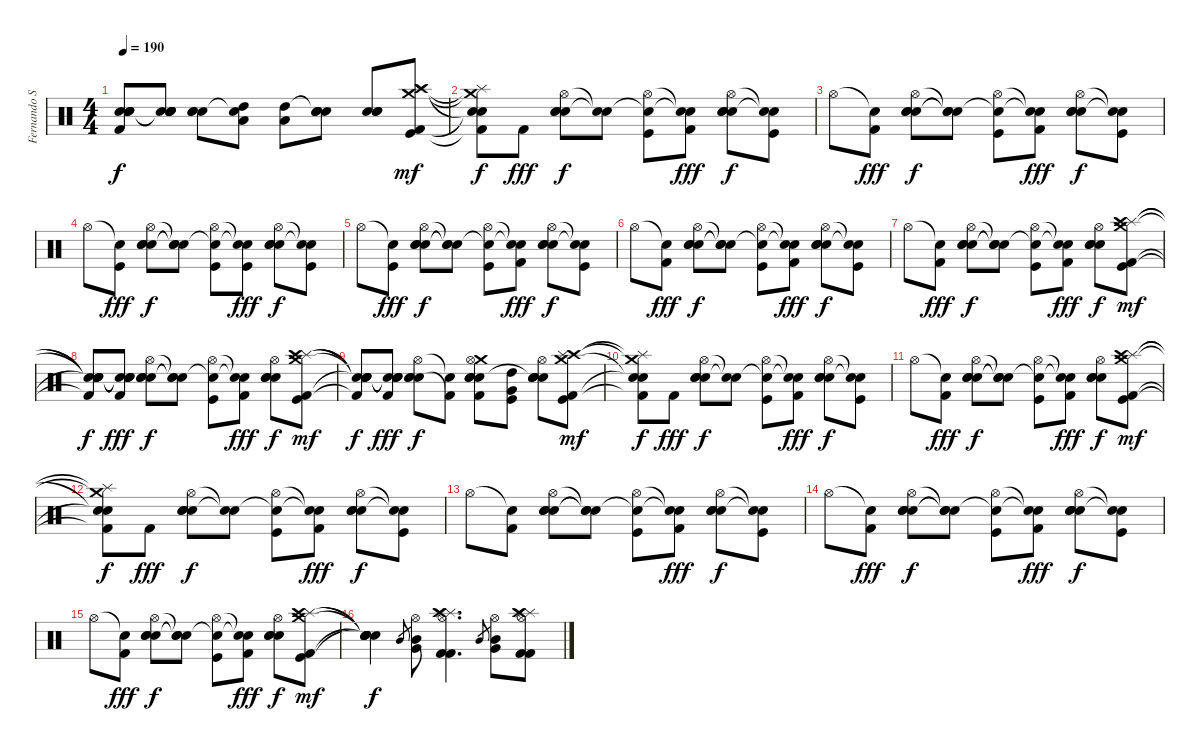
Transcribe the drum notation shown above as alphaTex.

\track ("Fernando Scarcella" "Fernando S") {instrument percussion}
\staff {score}
\articulation defaults
\ts (4 4)
\tempo 190
\clef neutral
\ks c
("Snare (hit)"{t} "Snare (hit)"{t} "Snare (hit)"{t} "Snare (hit)"{t} "Kick (hit) 2"{t}).8{dy f} ("Snare (hit)"{t} "Snare (hit)"{t} "Electric Snare (hit)" "Electric Snare (hit)" "Electric Snare (hit)").8 ("Electric Snare (hit)" "Electric Snare (hit)" "Electric Snare (hit)").8 ("High Tom (hit)" "Low Tom (hit)" "Snare (hit)"{t}).8 ("High Tom (hit)" "Low Tom (hit)").8 ("Snare (hit)"{t} "Electric Snare (hit)" "Electric Snare (hit)" "Electric Snare (hit)").8 ("Electric Snare (hit)" "Electric Snare (hit)" "Electric Snare (hit)").8 ("Crash medium (hit)" "Splash (hit)" "Crash high (hit)" "Kick (hit) 2" "Kick (hit)").8{dy mf} |
("Crash medium (hit)"{t} "Splash (hit)"{t} "Snare (hit)"{t} "Snare (hit)"{t} "Kick (hit) 2"{t}).8{dy f} "Kick (hit) 2".8{dy fff} ("Hi-Hat (open)" "Electric Snare (hit)" "Electric Snare (hit)" "Electric Snare (hit)").8{dy f} ("Snare (hit)"{t} "Snare (hit)"{t}).8 ("Hi-Hat (open)" "Snare (hit)"{t} "Kick (hit)").8 ("Snare (hit)"{t} "Snare (hit)"{t} "Kick (hit) 2").8{dy fff} ("Hi-Hat (open)" "Electric Snare (hit)" "Electric Snare (hit)" "Electric Snare (hit)").8{dy f} ("Snare (hit)"{t} "Snare (hit)"{t} "Kick (hit)").8 |
"Hi-Hat (open)".8 ("Snare (hit)"{t} "Kick (hit) 2").8{dy fff} ("Hi-Hat (open)" "Electric Snare (hit)" "Electric Snare (hit)" "Electric Snare (hit)").8{dy f} ("Snare (hit)"{t} "Snare (hit)"{t} "Snare (hit)"{t}).8 ("Hi-Hat (open)" "Snare (hit)"{t} "Kick (hit)").8 ("Snare (hit)"{t} "Snare (hit)"{t} "Kick (hit) 2").8{dy fff} ("Hi-Hat (open)" "Electric Snare (hit)" "Electric Snare (hit)" "Electric Snare (hit)").8{dy f} ("Snare (hit)"{t} "Snare (hit)"{t} "Kick (hit)").8 |
"Hi-Hat (open)".8 ("Snare (hit)"{t} "Kick (hit)").8{dy fff} ("Hi-Hat (open)" "Electric Snare (hit)" "Electric Snare (hit)" "Electric Snare (hit)").8{dy f} ("Snare (hit)"{t} "Snare (hit)"{t} "Snare (hit)"{t}).8 ("Hi-Hat (open)" "Snare (hit)"{t} "Kick (hit)").8 ("Snare (hit)"{t} "Snare (hit)"{t} "Kick (hit)").8{dy fff} ("Hi-Hat (open)" "Electric Snare (hit)" "Electric Snare (hit)" "Electric Snare (hit)").8{dy f} ("Snare (hit)"{t} "Snare (hit)"{t} "Kick (hit)").8 |
"Hi-Hat (open)".8 ("Snare (hit)"{t} "Kick (hit)").8{dy fff} ("Hi-Hat (open)" "Electric Snare (hit)" "Electric Snare (hit)" "Electric Snare (hit)").8{dy f} ("Snare (hit)"{t} "Snare (hit)"{t} "Snare (hit)"{t}).8 ("Hi-Hat (open)" "Snare (hit)"{t} "Kick (hit)").8 ("Snare (hit)"{t} "Snare (hit)"{t} "Kick (hit) 2").8{dy fff} ("Hi-Hat (open)" "Electric Snare (hit)" "Electric Snare (hit)" "Electric Snare (hit)").8{dy f} ("Snare (hit)"{t} "Snare (hit)"{t} "Kick (hit)").8 |
"Hi-Hat (open)".8 ("Snare (hit)"{t} "Kick (hit) 2").8{dy fff} ("Hi-Hat (open)" "Electric Snare (hit)" "Electric Snare (hit)" "Electric Snare (hit)").8{dy f} ("Snare (hit)"{t} "Snare (hit)"{t} "Snare (hit)"{t}).8 ("Hi-Hat (open)" "Snare (hit)"{t} "Kick (hit)").8 ("Snare (hit)"{t} "Snare (hit)"{t} "Kick (hit) 2").8{dy fff} ("Hi-Hat (open)" "Electric Snare (hit)" "Electric Snare (hit)" "Electric Snare (hit)").8{dy f} ("Snare (hit)"{t} "Snare (hit)"{t} "Kick (hit)").8 |
"Hi-Hat (open)".8 ("Snare (hit)"{t} "Kick (hit) 2").8{dy fff} ("Hi-Hat (open)" "Electric Snare (hit)" "Electric Snare (hit)" "Electric Snare (hit)").8{dy f} ("Snare (hit)"{t} "Snare (hit)"{t} "Snare (hit)"{t}).8 ("Hi-Hat (open)" "Snare (hit)"{t} "Kick (hit)").8 ("Snare (hit)"{t} "Snare (hit)"{t} "Kick (hit) 2").8{dy fff} ("Hi-Hat (open)" "Electric Snare (hit)" "Electric Snare (hit)" "Electric Snare (hit)").8{dy f} ("Crash medium (hit)" "Splash (hit)" "Crash high (hit)" "Kick (hit) 2" "Kick (hit)").8{dy mf} |
("Snare (hit)"{t} "Snare (hit)"{t} "Snare (hit)"{t} "Snare (hit)"{t} "Kick (hit) 2"{t}).8{dy f} ("Snare (hit)"{t} "Snare (hit)"{t} "Snare (hit)"{t} "Snare (hit)"{t} "Kick (hit) 2").8{dy fff} ("Hi-Hat (open)" "Electric Snare (hit)" "Electric Snare (hit)" "Electric Snare (hit)").8{dy f} ("Snare (hit)"{t} "Snare (hit)"{t} "Snare (hit)"{t}).8 ("Hi-Hat (open)" "Snare (hit)"{t} "Kick (hit)").8 ("Snare (hit)"{t} "Snare (hit)"{t} "Kick (hit) 2").8{dy fff} ("Hi-Hat (open)" "Electric Snare (hit)" "Electric Snare (hit)" "Electric Snare (hit)").8{dy f} ("Crash medium (hit)" "Splash (hit)" "Crash high (hit)" "Kick (hit) 2" "Kick (hit)").8{dy mf} |
("Snare (hit)"{t} "Snare (hit)"{t} "Snare (hit)"{t} "Snare (hit)"{t} "Kick (hit) 2"{t}).8{dy f} ("Snare (hit)"{t} "Snare (hit)"{t} "Snare (hit)"{t} "Snare (hit)"{t} "Kick (hit) 2").8{dy fff} ("Hi-Hat (open)" "Electric Snare (hit)" "Electric Snare (hit)" "Electric Snare (hit)").8{dy f} ("Snare (hit)"{t} "Kick (hit) 2"{t}).8 ("Crash medium (hit)" "Electric Snare (hit)" "Hi-Hat (open)" "Electric Snare (hit)" "Electric Snare (hit)" "Kick (hit) 2").8 ("Very Low Tom (hit)" "High Tom (hit)" "Kick (hit)").8 ("Electric Snare (hit)" "Hi-Hat (open)" "Electric Snare (hit)" "Electric Snare (hit)" "Snare (hit)"{t}).8 ("Crash high (hit)" "Splash (hit)" "Crash medium (hit)" "Kick (hit) 2" "Kick (hit)").8{dy mf} |
("Crash medium (hit)"{t} "Splash (hit)"{t} "Snare (hit)"{t} "Snare (hit)"{t} "Kick (hit) 2"{t}).8{dy f} "Kick (hit) 2".8{dy fff} ("Hi-Hat (open)" "Electric Snare (hit)" "Electric Snare (hit)" "Electric Snare (hit)").8{dy f} ("Snare (hit)"{t} "Snare (hit)"{t}).8 ("Hi-Hat (open)" "Snare (hit)"{t} "Kick (hit)").8 ("Snare (hit)"{t} "Snare (hit)"{t} "Kick (hit) 2").8{dy fff} ("Hi-Hat (open)" "Electric Snare (hit)" "Electric Snare (hit)" "Electric Snare (hit)").8{dy f} ("Snare (hit)"{t} "Snare (hit)"{t} "Kick (hit)").8 |
"Hi-Hat (open)".8 ("Snare (hit)"{t} "Kick (hit) 2").8{dy fff} ("Hi-Hat (open)" "Electric Snare (hit)" "Electric Snare (hit)" "Electric Snare (hit)").8{dy f} ("Snare (hit)"{t} "Snare (hit)"{t} "Snare (hit)"{t}).8 ("Hi-Hat (open)" "Snare (hit)"{t} "Kick (hit)").8 ("Snare (hit)"{t} "Snare (hit)"{t} "Kick (hit) 2").8{dy fff} ("Hi-Hat (open)" "Electric Snare (hit)" "Electric Snare (hit)" "Electric Snare (hit)").8{dy f} ("Crash medium (hit)" "Splash (hit)" "Crash high (hit)" "Kick (hit) 2" "Kick (hit)").8{dy mf} |
("Crash medium (hit)"{t} "Splash (hit)"{t} "Snare (hit)"{t} "Snare (hit)"{t} "Kick (hit) 2"{t}).8{dy f} "Kick (hit) 2".8{dy fff} ("Hi-Hat (open)" "Electric Snare (hit)" "Electric Snare (hit)" "Electric Snare (hit)").8{dy f} ("Snare (hit)"{t} "Snare (hit)"{t}).8 ("Hi-Hat (open)" "Snare (hit)"{t} "Kick (hit)").8 ("Snare (hit)"{t} "Snare (hit)"{t} "Kick (hit) 2").8{dy fff} ("Hi-Hat (open)" "Electric Snare (hit)" "Electric Snare (hit)" "Electric Snare (hit)").8{dy f} ("Snare (hit)"{t} "Snare (hit)"{t} "Kick (hit)").8 |
"Hi-Hat (open)".8 ("Snare (hit)"{t} "Kick (hit) 2").8 ("Hi-Hat (open)" "Electric Snare (hit)" "Electric Snare (hit)" "Electric Snare (hit)").8 ("Snare (hit)"{t} "Snare (hit)"{t} "Snare (hit)"{t}).8 ("Hi-Hat (open)" "Snare (hit)"{t} "Kick (hit)").8 ("Snare (hit)"{t} "Snare (hit)"{t} "Kick (hit) 2").8{dy fff} ("Hi-Hat (open)" "Electric Snare (hit)" "Electric Snare (hit)" "Electric Snare (hit)").8{dy f} ("Snare (hit)"{t} "Snare (hit)"{t} "Kick (hit)").8 |
"Hi-Hat (open)".8 ("Snare (hit)"{t} "Kick (hit) 2").8{dy fff} ("Hi-Hat (open)" "Electric Snare (hit)" "Electric Snare (hit)" "Electric Snare (hit)").8{dy f} ("Snare (hit)"{t} "Snare (hit)"{t} "Snare (hit)"{t}).8 ("Hi-Hat (open)" "Snare (hit)"{t} "Kick (hit)").8 ("Snare (hit)"{t} "Snare (hit)"{t} "Kick (hit) 2").8{dy fff} ("Hi-Hat (open)" "Electric Snare (hit)" "Electric Snare (hit)" "Electric Snare (hit)").8{dy f} ("Snare (hit)"{t} "Snare (hit)"{t} "Kick (hit)").8 |
"Hi-Hat (open)".8 ("Snare (hit)"{t} "Kick (hit) 2").8{dy fff} ("Hi-Hat (open)" "Electric Snare (hit)" "Electric Snare (hit)" "Electric Snare (hit)").8{dy f} ("Snare (hit)"{t} "Snare (hit)"{t} "Snare (hit)"{t}).8 ("Hi-Hat (open)" "Snare (hit)"{t} "Kick (hit)").8 ("Snare (hit)"{t} "Snare (hit)"{t} "Kick (hit) 2").8{dy fff} ("Hi-Hat (open)" "Electric Snare (hit)" "Electric Snare (hit)" "Electric Snare (hit)").8{dy f} ("Crash medium (hit)" "Splash (hit)" "Crash high (hit)" "Kick (hit) 2" "Kick (hit)").8{dy mf} |
("Snare (hit)"{t} "Snare (hit)"{t} "Snare (hit)"{t} "Snare (hit)"{t} "Snare (hit)"{t} "Snare (hit)").4{dy f} "Mid Tom (hit)".8{gr} ("Hi-Hat (open)" "Mid Tom (hit)" "Very Low Tom (hit)").8 ("Splash (hit)" "Splash (hit)" "Hi-Hat (open)" "Crash high (hit)" "Kick (hit) 2" "Kick (hit) 2").4{d} "Mid Tom (hit)".8{gr} ("Hi-Hat (open)" "Mid Tom (hit)" "Very Low Tom (hit)").8 ("Splash (hit)" "Splash (hit)" "Hi-Hat (open)" "Crash high (hit)" "Kick (hit) 2" "Kick (hit) 2").8
